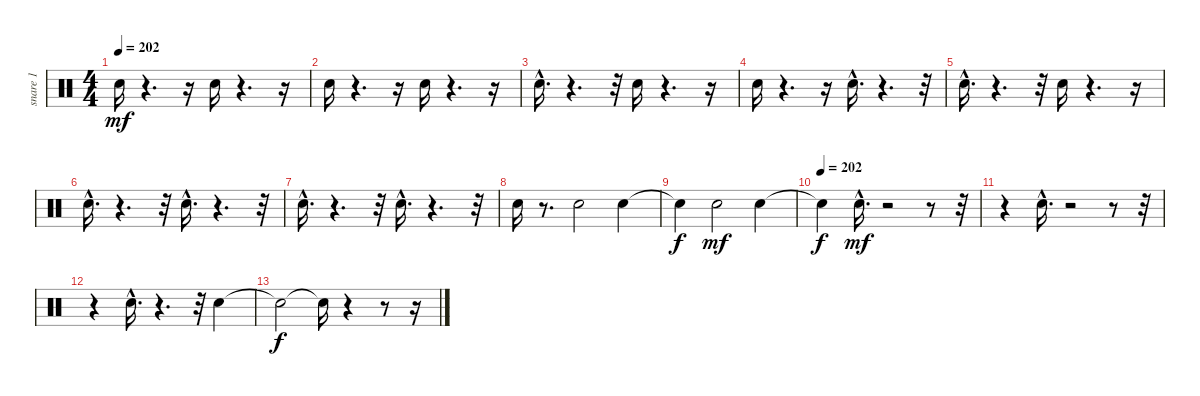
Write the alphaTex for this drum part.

\track ("snare 1" "snare 1") {instrument percussion}
\staff {score}
\articulation defaults
\ts (4 4)
\tempo 202
\clef neutral
\ks c "Snare (hit) 2".16{dy mf}
r.4{d} r.16 "Snare (hit) 2".16 r.4{d} r.16 |
"Snare (hit) 2".16 r.4{d} r.16 "Snare (hit) 2".16 r.4{d} r.16 |
"Snare (hit) 2"{hac}.16{d} r.4{d} r.32 "Snare (hit) 2".16 r.4{d} r.16 |
"Snare (hit) 2".16 r.4{d} r.16 "Snare (hit) 2"{hac}.16{d} r.4{d} r.32 |
"Snare (hit) 2"{hac}.16{d} r.4{d} r.32 "Snare (hit) 2".16 r.4{d} r.16 |
"Snare (hit) 2"{hac}.16{d} r.4{d} r.32 "Snare (hit) 2"{hac}.16{d} r.4{d} r.32 |
"Snare (hit) 2"{hac}.16{d} r.4{d} r.32 "Snare (hit) 2"{hac}.16{d} r.4{d} r.32 |
"Snare (hit) 2".16 r.8{d} "Snare (hit) 2".2 "Snare (hit) 2".4 |
"Snare (hit)"{t}.4{dy f} "Snare (hit) 2".2{dy mf} "Snare (hit) 2".4 |
\tempo (202)
"Snare (hit)"{t}.4{dy f} "Snare (hit) 2"{hac}.16{d dy mf} r.2 r.8 r.32 |
r.4 "Snare (hit) 2"{hac}.16{d} r.2 r.8 r.32 |
r.4 "Snare (hit) 2"{hac}.16{d} r.4{d} r.32 "Snare (hit) 2".4 |
"Snare (hit)"{t}.2{dy f} "Snare (hit)"{t}.16 r.4 r.8 r.16
